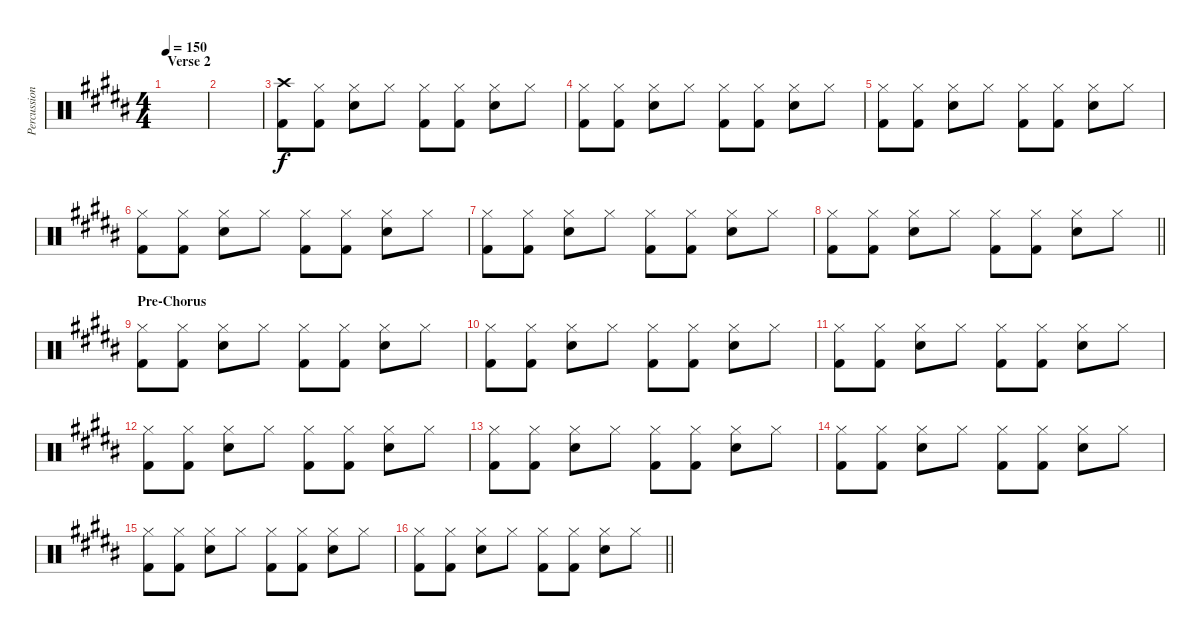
\track ("Percussion" "Percussion") {instrument percussion}
\staff {score}
\articulation defaults
\ts (4 4)
\section ("" "Verse 2")
\tempo 150
\clef neutral
\ks b
|
|
("Crash high (hit)" "Kick (hit) 2").8 ("Hi-Hat (closed)" "Kick (hit) 2").8 ("Hi-Hat (closed)" "Electric Snare (hit)").8 "Hi-Hat (closed)".8 ("Hi-Hat (closed)" "Kick (hit) 2").8 ("Hi-Hat (closed)" "Kick (hit) 2").8 ("Hi-Hat (closed)" "Electric Snare (hit)").8 "Hi-Hat (closed)".8 |
("Hi-Hat (closed)" "Kick (hit) 2").8 ("Hi-Hat (closed)" "Kick (hit) 2").8 ("Hi-Hat (closed)" "Electric Snare (hit)").8 "Hi-Hat (closed)".8 ("Hi-Hat (closed)" "Kick (hit) 2").8 ("Hi-Hat (closed)" "Kick (hit) 2").8 ("Hi-Hat (closed)" "Electric Snare (hit)").8 "Hi-Hat (closed)".8 |
("Hi-Hat (closed)" "Kick (hit) 2").8 ("Hi-Hat (closed)" "Kick (hit) 2").8 ("Hi-Hat (closed)" "Electric Snare (hit)").8 "Hi-Hat (closed)".8 ("Hi-Hat (closed)" "Kick (hit) 2").8 ("Hi-Hat (closed)" "Kick (hit) 2").8 ("Hi-Hat (closed)" "Electric Snare (hit)").8 "Hi-Hat (closed)".8 |
("Hi-Hat (closed)" "Kick (hit) 2").8 ("Hi-Hat (closed)" "Kick (hit) 2").8 ("Hi-Hat (closed)" "Electric Snare (hit)").8 "Hi-Hat (closed)".8 ("Hi-Hat (closed)" "Kick (hit) 2").8 ("Hi-Hat (closed)" "Kick (hit) 2").8 ("Hi-Hat (closed)" "Electric Snare (hit)").8 "Hi-Hat (closed)".8 |
("Hi-Hat (closed)" "Kick (hit) 2").8 ("Hi-Hat (closed)" "Kick (hit) 2").8 ("Hi-Hat (closed)" "Electric Snare (hit)").8 "Hi-Hat (closed)".8 ("Hi-Hat (closed)" "Kick (hit) 2").8 ("Hi-Hat (closed)" "Kick (hit) 2").8 ("Hi-Hat (closed)" "Electric Snare (hit)").8 "Hi-Hat (closed)".8 |
\barLineRight lightlight
("Hi-Hat (closed)" "Kick (hit) 2").8 ("Hi-Hat (closed)" "Kick (hit) 2").8 ("Hi-Hat (closed)" "Electric Snare (hit)").8 "Hi-Hat (closed)".8 ("Hi-Hat (closed)" "Kick (hit) 2").8 ("Hi-Hat (closed)" "Kick (hit) 2").8 ("Hi-Hat (closed)" "Electric Snare (hit)").8 "Hi-Hat (closed)".8 |
\section ("" "Pre-Chorus")
("Hi-Hat (closed)" "Kick (hit) 2").8 ("Hi-Hat (closed)" "Kick (hit) 2").8 ("Hi-Hat (closed)" "Electric Snare (hit)").8 "Hi-Hat (closed)".8 ("Hi-Hat (closed)" "Kick (hit) 2").8 ("Hi-Hat (closed)" "Kick (hit) 2").8 ("Hi-Hat (closed)" "Electric Snare (hit)").8 "Hi-Hat (closed)".8 |
("Hi-Hat (closed)" "Kick (hit) 2").8 ("Hi-Hat (closed)" "Kick (hit) 2").8 ("Hi-Hat (closed)" "Electric Snare (hit)").8 "Hi-Hat (closed)".8 ("Hi-Hat (closed)" "Kick (hit) 2").8 ("Hi-Hat (closed)" "Kick (hit) 2").8 ("Hi-Hat (closed)" "Electric Snare (hit)").8 "Hi-Hat (closed)".8 |
("Hi-Hat (closed)" "Kick (hit) 2").8 ("Hi-Hat (closed)" "Kick (hit) 2").8 ("Hi-Hat (closed)" "Electric Snare (hit)").8 "Hi-Hat (closed)".8 ("Hi-Hat (closed)" "Kick (hit) 2").8 ("Hi-Hat (closed)" "Kick (hit) 2").8 ("Hi-Hat (closed)" "Electric Snare (hit)").8 "Hi-Hat (closed)".8 |
("Hi-Hat (closed)" "Kick (hit) 2").8 ("Hi-Hat (closed)" "Kick (hit) 2").8 ("Hi-Hat (closed)" "Electric Snare (hit)").8 "Hi-Hat (closed)".8 ("Hi-Hat (closed)" "Kick (hit) 2").8 ("Hi-Hat (closed)" "Kick (hit) 2").8 ("Hi-Hat (closed)" "Electric Snare (hit)").8 "Hi-Hat (closed)".8 |
("Hi-Hat (closed)" "Kick (hit) 2").8 ("Hi-Hat (closed)" "Kick (hit) 2").8 ("Hi-Hat (closed)" "Electric Snare (hit)").8 "Hi-Hat (closed)".8 ("Hi-Hat (closed)" "Kick (hit) 2").8 ("Hi-Hat (closed)" "Kick (hit) 2").8 ("Hi-Hat (closed)" "Electric Snare (hit)").8 "Hi-Hat (closed)".8 |
("Hi-Hat (closed)" "Kick (hit) 2").8 ("Hi-Hat (closed)" "Kick (hit) 2").8 ("Hi-Hat (closed)" "Electric Snare (hit)").8 "Hi-Hat (closed)".8 ("Hi-Hat (closed)" "Kick (hit) 2").8 ("Hi-Hat (closed)" "Kick (hit) 2").8 ("Hi-Hat (closed)" "Electric Snare (hit)").8 "Hi-Hat (closed)".8 |
("Hi-Hat (closed)" "Kick (hit) 2").8 ("Hi-Hat (closed)" "Kick (hit) 2").8 ("Hi-Hat (closed)" "Electric Snare (hit)").8 "Hi-Hat (closed)".8 ("Hi-Hat (closed)" "Kick (hit) 2").8 ("Hi-Hat (closed)" "Kick (hit) 2").8 ("Hi-Hat (closed)" "Electric Snare (hit)").8 "Hi-Hat (closed)".8 |
\barLineRight lightlight
("Hi-Hat (closed)" "Kick (hit) 2").8 ("Hi-Hat (closed)" "Kick (hit) 2").8 ("Hi-Hat (closed)" "Electric Snare (hit)").8 "Hi-Hat (closed)".8 ("Hi-Hat (closed)" "Kick (hit) 2").8 ("Hi-Hat (closed)" "Kick (hit) 2").8 ("Hi-Hat (closed)" "Electric Snare (hit)").8 "Hi-Hat (closed)".8
